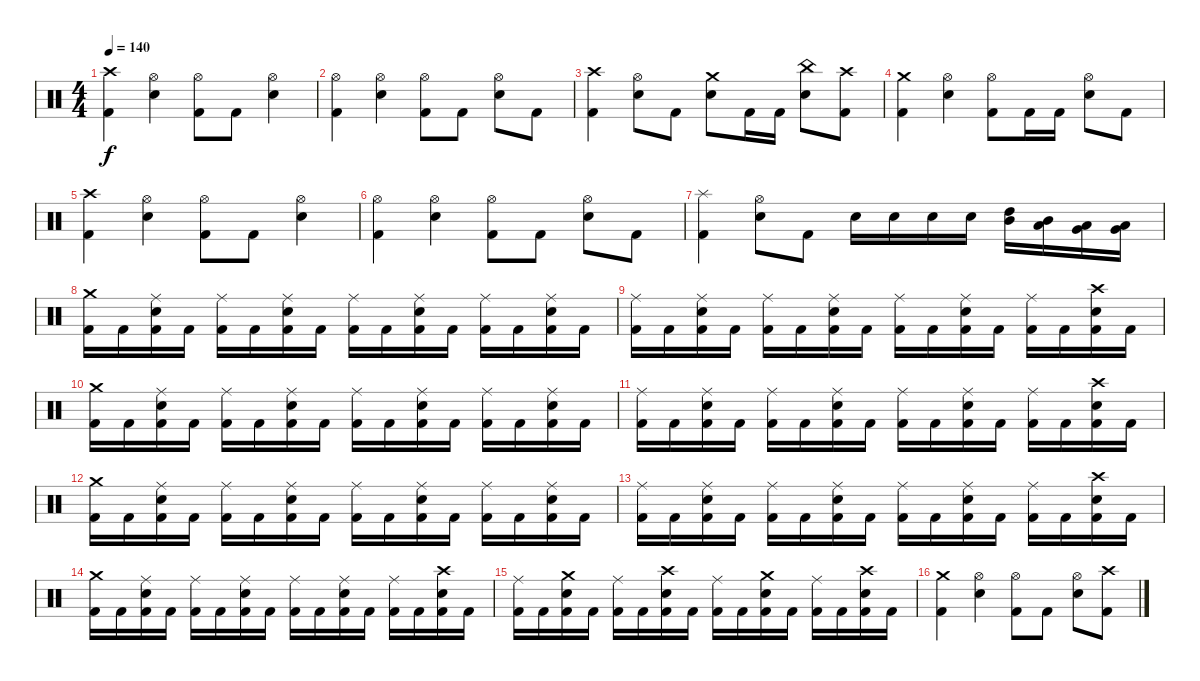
\track "" {instrument percussion}
\staff {score}
\articulation defaults
\ts (4 4)
\tempo 140
\clef neutral
\ks c
("Crash high (hit)" "Kick (hit) 2").4{dy f} ("Hi-Hat (open)" "Electric Snare (hit)").4 ("Hi-Hat (open)" "Kick (hit) 2").8 "Kick (hit) 2".8 ("Hi-Hat (open)" "Electric Snare (hit)").4 |
("Hi-Hat (open)" "Kick (hit) 2").4 ("Hi-Hat (open)" "Electric Snare (hit)").4 ("Hi-Hat (open)" "Kick (hit) 2").8 "Kick (hit) 2".8 ("Hi-Hat (open)" "Electric Snare (hit)").8 "Kick (hit) 2".8 |
("Crash high (hit)" "Kick (hit) 2").4 ("Hi-Hat (open)" "Electric Snare (hit)").8 "Kick (hit) 2".8 ("Crash medium (hit)" "Electric Snare (hit)").8 "Kick (hit) 2".16 "Kick (hit) 2".16 ("China (hit)" "Electric Snare (hit)").8 ("Crash high (hit)" "Kick (hit) 2").8 |
("Crash medium (hit)" "Kick (hit) 2").4 ("Hi-Hat (open)" "Electric Snare (hit)").4 ("Hi-Hat (open)" "Kick (hit) 2").8 "Kick (hit) 2".16 "Kick (hit) 2".16 ("Hi-Hat (open)" "Electric Snare (hit)").8 "Kick (hit) 2".8 |
("Crash high (hit)" "Kick (hit) 2").4 ("Hi-Hat (open)" "Electric Snare (hit)").4 ("Hi-Hat (open)" "Kick (hit) 2").8 "Kick (hit) 2".8 ("Hi-Hat (open)" "Electric Snare (hit)").4 |
("Hi-Hat (open)" "Kick (hit) 2").4 ("Hi-Hat (open)" "Electric Snare (hit)").4 ("Hi-Hat (open)" "Kick (hit) 2").8 "Kick (hit) 2".8 ("Hi-Hat (open)" "Electric Snare (hit)").8 "Kick (hit) 2".8 |
("Splash (hit)" "Kick (hit) 2").4 ("Hi-Hat (open)" "Electric Snare (hit)").8 "Kick (hit) 2".8 "Electric Snare (hit)".16 "Electric Snare (hit)".16 "Electric Snare (hit)".16 "Electric Snare (hit)".16 ("High Tom (hit)" "Mid Tom (hit)").16 ("Mid Tom (hit)" "Low Tom (hit)").16 ("Low Tom (hit)" "Very Low Tom (hit)").16 ("Very Low Tom (hit)" "Low Floor Tom (hit)").16 |
("Crash medium (hit)" "Kick (hit) 2").16 "Kick (hit) 2".16 ("Ride (middle)" "Electric Snare (hit)" "Kick (hit) 2").16 "Kick (hit) 2".16 ("Ride (middle)" "Kick (hit) 2").16 "Kick (hit) 2".16 ("Ride (middle)" "Electric Snare (hit)" "Kick (hit) 2").16 "Kick (hit) 2".16 ("Ride (middle)" "Kick (hit) 2").16 "Kick (hit) 2".16 ("Ride (middle)" "Electric Snare (hit)" "Kick (hit) 2").16 "Kick (hit) 2".16 ("Ride (middle)" "Kick (hit) 2").16 "Kick (hit) 2".16 ("Ride (middle)" "Electric Snare (hit)" "Kick (hit) 2").16 "Kick (hit) 2".16 |
("Ride (middle)" "Kick (hit) 2").16 "Kick (hit) 2".16 ("Ride (middle)" "Electric Snare (hit)" "Kick (hit) 2").16 "Kick (hit) 2".16 ("Ride (middle)" "Kick (hit) 2").16 "Kick (hit) 2".16 ("Ride (middle)" "Electric Snare (hit)" "Kick (hit) 2").16 "Kick (hit) 2".16 ("Ride (middle)" "Kick (hit) 2").16 "Kick (hit) 2".16 ("Ride (middle)" "Electric Snare (hit)" "Kick (hit) 2").16 "Kick (hit) 2".16 ("Ride (middle)" "Kick (hit) 2").16 "Kick (hit) 2".16 ("Crash high (hit)" "Electric Snare (hit)" "Kick (hit) 2").16 "Kick (hit) 2".16 |
("Crash medium (hit)" "Kick (hit) 2").16 "Kick (hit) 2".16 ("Ride (middle)" "Electric Snare (hit)" "Kick (hit) 2").16 "Kick (hit) 2".16 ("Ride (middle)" "Kick (hit) 2").16 "Kick (hit) 2".16 ("Ride (middle)" "Electric Snare (hit)" "Kick (hit) 2").16 "Kick (hit) 2".16 ("Ride (middle)" "Kick (hit) 2").16 "Kick (hit) 2".16 ("Ride (middle)" "Electric Snare (hit)" "Kick (hit) 2").16 "Kick (hit) 2".16 ("Ride (middle)" "Kick (hit) 2").16 "Kick (hit) 2".16 ("Ride (middle)" "Electric Snare (hit)" "Kick (hit) 2").16 "Kick (hit) 2".16 |
("Ride (middle)" "Kick (hit) 2").16 "Kick (hit) 2".16 ("Ride (middle)" "Electric Snare (hit)" "Kick (hit) 2").16 "Kick (hit) 2".16 ("Ride (middle)" "Kick (hit) 2").16 "Kick (hit) 2".16 ("Ride (middle)" "Electric Snare (hit)" "Kick (hit) 2").16 "Kick (hit) 2".16 ("Ride (middle)" "Kick (hit) 2").16 "Kick (hit) 2".16 ("Ride (middle)" "Electric Snare (hit)" "Kick (hit) 2").16 "Kick (hit) 2".16 ("Ride (middle)" "Kick (hit) 2").16 "Kick (hit) 2".16 ("Crash high (hit)" "Electric Snare (hit)" "Kick (hit) 2").16 "Kick (hit) 2".16 |
("Crash medium (hit)" "Kick (hit) 2").16 "Kick (hit) 2".16 ("Ride (middle)" "Electric Snare (hit)" "Kick (hit) 2").16 "Kick (hit) 2".16 ("Ride (middle)" "Kick (hit) 2").16 "Kick (hit) 2".16 ("Ride (middle)" "Electric Snare (hit)" "Kick (hit) 2").16 "Kick (hit) 2".16 ("Ride (middle)" "Kick (hit) 2").16 "Kick (hit) 2".16 ("Ride (middle)" "Electric Snare (hit)" "Kick (hit) 2").16 "Kick (hit) 2".16 ("Ride (middle)" "Kick (hit) 2").16 "Kick (hit) 2".16 ("Ride (middle)" "Electric Snare (hit)" "Kick (hit) 2").16 "Kick (hit) 2".16 |
("Ride (middle)" "Kick (hit) 2").16 "Kick (hit) 2".16 ("Ride (middle)" "Electric Snare (hit)" "Kick (hit) 2").16 "Kick (hit) 2".16 ("Ride (middle)" "Kick (hit) 2").16 "Kick (hit) 2".16 ("Ride (middle)" "Electric Snare (hit)" "Kick (hit) 2").16 "Kick (hit) 2".16 ("Ride (middle)" "Kick (hit) 2").16 "Kick (hit) 2".16 ("Ride (middle)" "Electric Snare (hit)" "Kick (hit) 2").16 "Kick (hit) 2".16 ("Ride (middle)" "Kick (hit) 2").16 "Kick (hit) 2".16 ("Crash high (hit)" "Electric Snare (hit)" "Kick (hit) 2").16 "Kick (hit) 2".16 |
("Crash medium (hit)" "Kick (hit) 2").16 "Kick (hit) 2".16 ("Ride (middle)" "Electric Snare (hit)" "Kick (hit) 2").16 "Kick (hit) 2".16 ("Ride (middle)" "Kick (hit) 2").16 "Kick (hit) 2".16 ("Ride (middle)" "Electric Snare (hit)" "Kick (hit) 2").16 "Kick (hit) 2".16 ("Ride (middle)" "Kick (hit) 2").16 "Kick (hit) 2".16 ("Ride (middle)" "Electric Snare (hit)" "Kick (hit) 2").16 "Kick (hit) 2".16 ("Ride (middle)" "Kick (hit) 2").16 "Kick (hit) 2".16 ("Crash high (hit)" "Electric Snare (hit)" "Kick (hit) 2").16 "Kick (hit) 2".16 |
("Ride (middle)" "Kick (hit) 2").16 "Kick (hit) 2".16 ("Crash medium (hit)" "Electric Snare (hit)" "Kick (hit) 2").16 "Kick (hit) 2".16 ("Ride (middle)" "Kick (hit) 2").16 "Kick (hit) 2".16 ("Crash high (hit)" "Electric Snare (hit)" "Kick (hit) 2").16 "Kick (hit) 2".16 ("Ride (middle)" "Kick (hit) 2").16 "Kick (hit) 2".16 ("Crash medium (hit)" "Electric Snare (hit)" "Kick (hit) 2").16 "Kick (hit) 2".16 ("Ride (middle)" "Kick (hit) 2").16 "Kick (hit) 2".16 ("Crash high (hit)" "Electric Snare (hit)" "Kick (hit) 2").16 "Kick (hit) 2".16 |
("Crash medium (hit)" "Kick (hit) 2").4 ("Hi-Hat (open)" "Electric Snare (hit)").4 ("Hi-Hat (open)" "Kick (hit) 2").8 "Kick (hit) 2".8 ("Hi-Hat (open)" "Electric Snare (hit)").8 ("Crash high (hit)" "Kick (hit) 2").8
